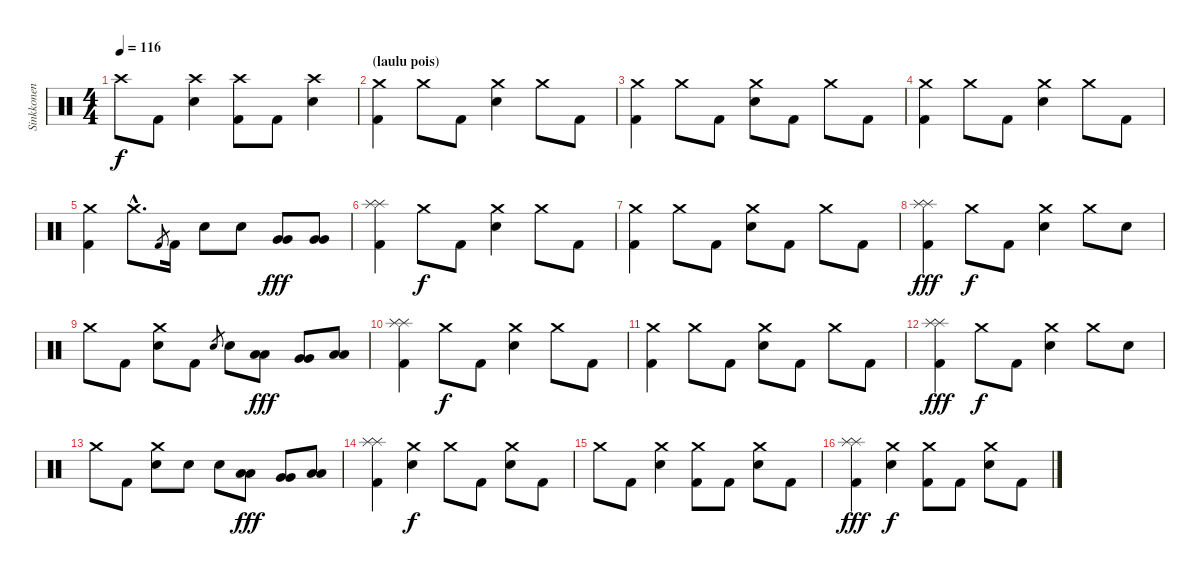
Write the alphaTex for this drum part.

\track ("Sinkkonen" "Sinkkonen") {instrument percussion}
\staff {score}
\articulation defaults
\ts (4 4)
\tempo 116
\clef neutral
\ks c "Crash high (hit)".8{dy f} "Kick (hit) 2".8
("Crash high (hit)" "Snare (hit) 2").4 ("Kick (hit) 2" "Crash high (hit)").8 "Kick (hit) 2".8 ("Crash high (hit)" "Snare (hit) 2").4 |
\section ("" "(laulu pois)")
("Kick (hit) 2" "Crash medium (hit)").4 "Crash medium (hit)".8 "Kick (hit) 2".8 ("Crash medium (hit)" "Snare (hit) 2").4 "Crash medium (hit)".8 "Kick (hit) 2".8 |
("Kick (hit) 2" "Crash medium (hit)").4 "Crash medium (hit)".8 "Kick (hit) 2".8 ("Crash medium (hit)" "Snare (hit) 2").8 "Kick (hit) 2".8 "Crash medium (hit)".8 "Kick (hit) 2".8 |
("Kick (hit) 2" "Crash medium (hit)").4 "Crash medium (hit)".8 "Kick (hit) 2".8 ("Crash medium (hit)" "Snare (hit) 2").4 "Crash medium (hit)".8 "Kick (hit) 2".8 |
("Kick (hit) 2" "Crash medium (hit)").4 "Crash medium (hit)"{hac}.8{d} "Kick (hit) 2".8{gr} "Kick (hit) 2".16 "Snare (hit) 2".8 "Snare (hit) 2".8 ("Very Low Tom (hit)" "Very Low Tom (hit)").8{dy fff} ("Very Low Tom (hit)" "Very Low Tom (hit)").8 |
("Kick (hit) 2" "Splash (hit)" "Splash (hit)").4 "Crash medium (hit)".8{dy f} "Kick (hit) 2".8 ("Crash medium (hit)" "Snare (hit) 2").4 "Crash medium (hit)".8 "Kick (hit) 2".8 |
("Kick (hit) 2" "Crash medium (hit)").4 "Crash medium (hit)".8 "Kick (hit) 2".8 ("Crash medium (hit)" "Snare (hit) 2").8 "Kick (hit) 2".8 "Crash medium (hit)".8 "Kick (hit) 2".8 |
("Kick (hit) 2" "Splash (hit)" "Splash (hit)").4{dy fff} "Crash medium (hit)".8{dy f} "Kick (hit) 2".8 ("Crash medium (hit)" "Snare (hit) 2").4 "Crash medium (hit)".8 "Snare (hit) 2".8 |
"Crash medium (hit)".8 "Kick (hit) 2".8 ("Crash medium (hit)" "Snare (hit) 2").8 "Kick (hit) 2".8 "Snare (hit) 2".8{gr} "Snare (hit) 2".8 ("Low Tom (hit)" "Low Tom (hit)").8{dy fff} ("Very Low Tom (hit)" "Very Low Tom (hit)").8 ("Low Floor Tom (hit)" "Low Floor Tom (hit)").8 |
("Kick (hit) 2" "Splash (hit)" "Splash (hit)").4{volume 10} "Crash medium (hit)".8{dy f} "Kick (hit) 2".8 ("Crash medium (hit)" "Snare (hit) 2").4 "Crash medium (hit)".8 "Kick (hit) 2".8 |
("Kick (hit) 2" "Crash medium (hit)").4 "Crash medium (hit)".8 "Kick (hit) 2".8 ("Crash medium (hit)" "Snare (hit) 2").8 "Kick (hit) 2".8 "Crash medium (hit)".8 "Kick (hit) 2".8 |
("Kick (hit) 2" "Splash (hit)" "Splash (hit)").4{dy fff} "Crash medium (hit)".8{dy f} "Kick (hit) 2".8 ("Crash medium (hit)" "Snare (hit) 2").4 "Crash medium (hit)".8 "Snare (hit) 2".8 |
"Crash medium (hit)".8 "Kick (hit) 2".8 ("Crash medium (hit)" "Snare (hit) 2").8 "Snare (hit) 2".8 "Snare (hit) 2".8 ("Low Tom (hit)" "Low Tom (hit)").8{dy fff} ("Very Low Tom (hit)" "Very Low Tom (hit)").8 ("Low Floor Tom (hit)" "Low Floor Tom (hit)").8 |
("Kick (hit) 2" "Splash (hit)" "Splash (hit)").4{volume 6} ("Crash medium (hit)" "Snare (hit) 2").4{dy f} "Crash medium (hit)".8 "Kick (hit) 2".8 ("Crash medium (hit)" "Snare (hit) 2").8 "Kick (hit) 2".8 |
"Crash medium (hit)".8 "Kick (hit) 2".8 ("Crash medium (hit)" "Snare (hit) 2").4 ("Kick (hit) 2" "Crash medium (hit)").8 "Kick (hit) 2".8 ("Crash medium (hit)" "Snare (hit) 2").8 "Kick (hit) 2".8 |
("Kick (hit) 2" "Splash (hit)" "Splash (hit)").4{dy fff} ("Crash medium (hit)" "Snare (hit) 2").4{dy f} ("Kick (hit) 2" "Crash medium (hit)").8 "Kick (hit) 2".8 ("Crash medium (hit)" "Snare (hit) 2").8 "Kick (hit) 2".8
